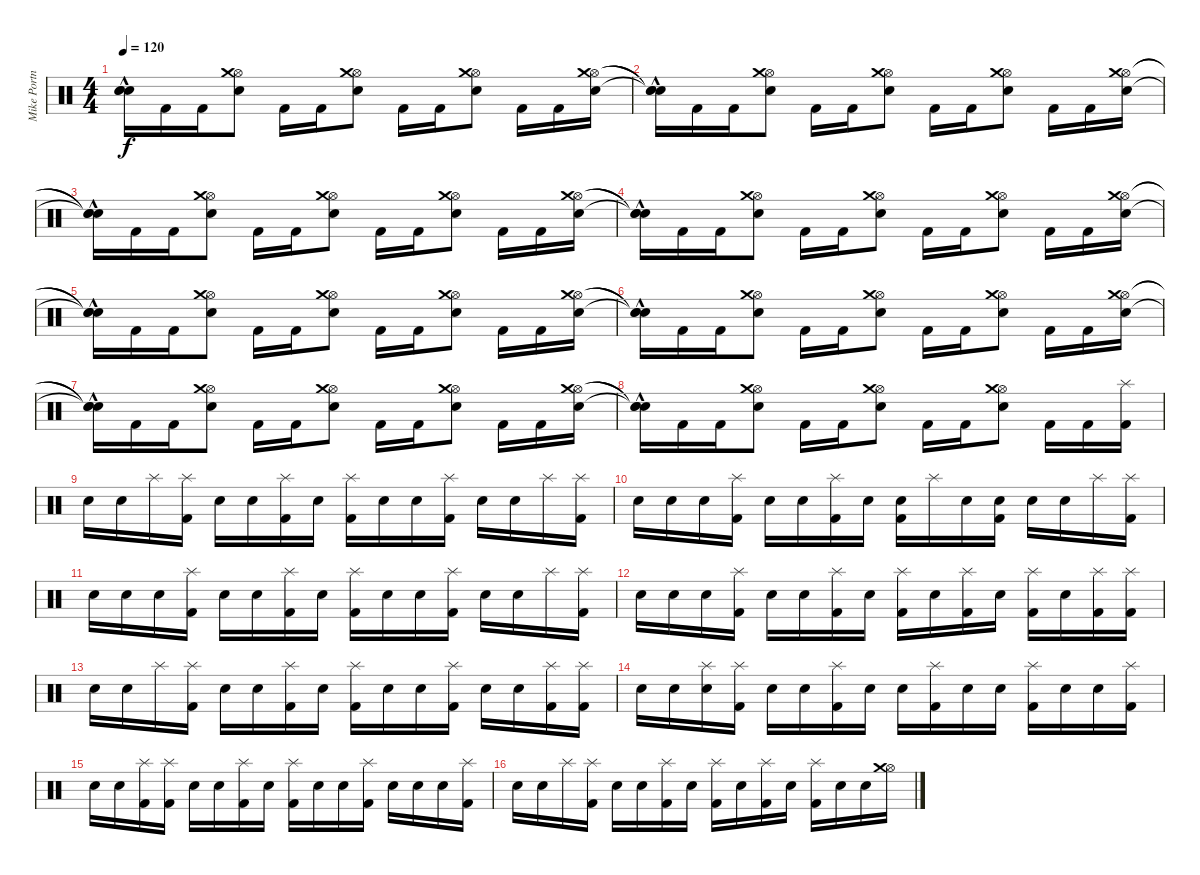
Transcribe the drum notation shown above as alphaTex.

\track ("Mike Portnoy - Batterie" "Mike Portn") {instrument percussion}
\staff {score}
\articulation defaults
\ts (4 4)
\tempo 120
\clef neutral
\ks c
("Snare (hit)"{hac t} "Snare (hit)"{hac t} "Snare (hit)"{t}).16{dy f} "Kick (hit) 2".16 "Kick (hit) 2".16 ("Hi-Hat (open)" "Crash medium (hit)" "Electric Snare (hit)").8 "Kick (hit) 2".16 "Kick (hit) 2".16 ("Hi-Hat (open)" "Crash medium (hit)" "Electric Snare (hit)").8 "Kick (hit) 2".16 "Kick (hit) 2".16 ("Hi-Hat (open)" "Crash medium (hit)" "Electric Snare (hit)").8 "Kick (hit) 2".16 "Kick (hit) 2".16 ("Hi-Hat (open)" "Crash medium (hit)" "Electric Snare (hit)").16 |
("Snare (hit)"{hac t} "Snare (hit)"{hac t} "Snare (hit)"{t}).16 "Kick (hit) 2".16 "Kick (hit) 2".16 ("Hi-Hat (open)" "Crash medium (hit)" "Electric Snare (hit)").8 "Kick (hit) 2".16 "Kick (hit) 2".16 ("Hi-Hat (open)" "Crash medium (hit)" "Electric Snare (hit)").8 "Kick (hit) 2".16 "Kick (hit) 2".16 ("Hi-Hat (open)" "Crash medium (hit)" "Electric Snare (hit)").8 "Kick (hit) 2".16 "Kick (hit) 2".16 ("Hi-Hat (open)" "Crash medium (hit)" "Electric Snare (hit)").16 |
("Snare (hit)"{hac t} "Snare (hit)"{hac t} "Snare (hit)"{t}).16 "Kick (hit) 2".16 "Kick (hit) 2".16 ("Hi-Hat (open)" "Crash medium (hit)" "Electric Snare (hit)").8 "Kick (hit) 2".16 "Kick (hit) 2".16 ("Hi-Hat (open)" "Crash medium (hit)" "Electric Snare (hit)").8 "Kick (hit) 2".16 "Kick (hit) 2".16 ("Hi-Hat (open)" "Crash medium (hit)" "Electric Snare (hit)").8 "Kick (hit) 2".16 "Kick (hit) 2".16 ("Hi-Hat (open)" "Crash medium (hit)" "Electric Snare (hit)").16 |
("Snare (hit)"{hac t} "Snare (hit)"{hac t} "Snare (hit)"{t}).16 "Kick (hit) 2".16 "Kick (hit) 2".16 ("Hi-Hat (open)" "Crash medium (hit)" "Electric Snare (hit)").8 "Kick (hit) 2".16 "Kick (hit) 2".16 ("Hi-Hat (open)" "Crash medium (hit)" "Electric Snare (hit)").8 "Kick (hit) 2".16 "Kick (hit) 2".16 ("Hi-Hat (open)" "Crash medium (hit)" "Electric Snare (hit)").8 "Kick (hit) 2".16 "Kick (hit) 2".16 ("Hi-Hat (open)" "Crash medium (hit)" "Electric Snare (hit)").16 |
("Snare (hit)"{hac t} "Snare (hit)"{hac t} "Snare (hit)"{t}).16 "Kick (hit) 2".16 "Kick (hit) 2".16 ("Hi-Hat (open)" "Crash medium (hit)" "Electric Snare (hit)").8 "Kick (hit) 2".16 "Kick (hit) 2".16 ("Hi-Hat (open)" "Crash medium (hit)" "Electric Snare (hit)").8 "Kick (hit) 2".16 "Kick (hit) 2".16 ("Hi-Hat (open)" "Crash medium (hit)" "Electric Snare (hit)").8 "Kick (hit) 2".16 "Kick (hit) 2".16 ("Hi-Hat (open)" "Crash medium (hit)" "Electric Snare (hit)").16 |
("Snare (hit)"{hac t} "Snare (hit)"{hac t} "Snare (hit)"{t}).16 "Kick (hit) 2".16 "Kick (hit) 2".16 ("Hi-Hat (open)" "Crash medium (hit)" "Electric Snare (hit)").8 "Kick (hit) 2".16 "Kick (hit) 2".16 ("Hi-Hat (open)" "Crash medium (hit)" "Electric Snare (hit)").8 "Kick (hit) 2".16 "Kick (hit) 2".16 ("Hi-Hat (open)" "Crash medium (hit)" "Electric Snare (hit)").8 "Kick (hit) 2".16 "Kick (hit) 2".16 ("Hi-Hat (open)" "Crash medium (hit)" "Electric Snare (hit)").16 |
("Snare (hit)"{hac t} "Snare (hit)"{hac t} "Snare (hit)"{t}).16 "Kick (hit) 2".16 "Kick (hit) 2".16 ("Hi-Hat (open)" "Crash medium (hit)" "Electric Snare (hit)").8 "Kick (hit) 2".16 "Kick (hit) 2".16 ("Hi-Hat (open)" "Crash medium (hit)" "Electric Snare (hit)").8 "Kick (hit) 2".16 "Kick (hit) 2".16 ("Hi-Hat (open)" "Crash medium (hit)" "Electric Snare (hit)").8 "Kick (hit) 2".16 "Kick (hit) 2".16 ("Hi-Hat (open)" "Crash medium (hit)" "Electric Snare (hit)").16 |
("Snare (hit)"{hac t} "Snare (hit)"{hac t} "Snare (hit)"{t}).16 "Kick (hit) 2".16 "Kick (hit) 2".16 ("Hi-Hat (open)" "Crash medium (hit)" "Electric Snare (hit)").8 "Kick (hit) 2".16 "Kick (hit) 2".16 ("Hi-Hat (open)" "Crash medium (hit)" "Electric Snare (hit)").8 "Kick (hit) 2".16 "Kick (hit) 2".16 ("Hi-Hat (open)" "Crash medium (hit)" "Electric Snare (hit)").8 "Kick (hit) 2".16 "Kick (hit) 2".16 ("Kick (hit) 2" "Splash (hit)").16 |
"Electric Snare (hit)".16 "Electric Snare (hit)".16 "Splash (hit)".16 ("Kick (hit) 2" "Splash (hit)").16 "Electric Snare (hit)".16 "Electric Snare (hit)".16 ("Kick (hit) 2" "Splash (hit)").16 "Electric Snare (hit)".16 ("Kick (hit) 2" "Splash (hit)").16 "Electric Snare (hit)".16 "Electric Snare (hit)".16 ("Kick (hit) 2" "Splash (hit)").16 "Electric Snare (hit)".16 "Electric Snare (hit)".16 "Splash (hit)".16 ("Kick (hit) 2" "Splash (hit)").16 |
"Electric Snare (hit)".16 "Electric Snare (hit)".16 "Electric Snare (hit)".16 ("Kick (hit) 2" "Splash (hit)").16 "Electric Snare (hit)".16 "Electric Snare (hit)".16 ("Kick (hit) 2" "Splash (hit)").16 "Electric Snare (hit)".16 ("Electric Snare (hit)" "Kick (hit) 2").16 "Splash (hit)".16 "Electric Snare (hit)".16 ("Electric Snare (hit)" "Kick (hit) 2").16 "Electric Snare (hit)".16 "Electric Snare (hit)".16 "Splash (hit)".16 ("Kick (hit) 2" "Splash (hit)").16 |
"Electric Snare (hit)".16 "Electric Snare (hit)".16 "Electric Snare (hit)".16 ("Kick (hit) 2" "Splash (hit)").16 "Electric Snare (hit)".16 "Electric Snare (hit)".16 ("Kick (hit) 2" "Splash (hit)").16 "Electric Snare (hit)".16 ("Kick (hit) 2" "Splash (hit)").16 "Electric Snare (hit)".16 "Electric Snare (hit)".16 ("Kick (hit) 2" "Splash (hit)").16 "Electric Snare (hit)".16 "Electric Snare (hit)".16 "Splash (hit)".16 ("Kick (hit) 2" "Splash (hit)").16 |
"Electric Snare (hit)".16 "Electric Snare (hit)".16 "Electric Snare (hit)".16 ("Kick (hit) 2" "Splash (hit)").16 "Electric Snare (hit)".16 "Electric Snare (hit)".16 ("Kick (hit) 2" "Splash (hit)").16 "Electric Snare (hit)".16 ("Kick (hit) 2" "Splash (hit)").16 "Electric Snare (hit)".16 ("Kick (hit) 2" "Splash (hit)").16 "Electric Snare (hit)".16 ("Kick (hit) 2" "Splash (hit)").16 "Electric Snare (hit)".16 ("Kick (hit) 2" "Splash (hit)").16 ("Kick (hit) 2" "Splash (hit)").16 |
"Electric Snare (hit)".16 "Electric Snare (hit)".16 "Splash (hit)".16 ("Kick (hit) 2" "Splash (hit)").16 "Electric Snare (hit)".16 "Electric Snare (hit)".16 ("Kick (hit) 2" "Splash (hit)").16 "Electric Snare (hit)".16 ("Kick (hit) 2" "Splash (hit)").16 "Electric Snare (hit)".16 "Electric Snare (hit)".16 ("Kick (hit) 2" "Splash (hit)").16 "Electric Snare (hit)".16 "Electric Snare (hit)".16 ("Kick (hit) 2" "Splash (hit)").16 ("Kick (hit) 2" "Splash (hit)").16 |
"Electric Snare (hit)".16 "Electric Snare (hit)".16 ("Splash (hit)" "Electric Snare (hit)").16 ("Kick (hit) 2" "Splash (hit)").16 "Electric Snare (hit)".16 "Electric Snare (hit)".16 ("Kick (hit) 2" "Splash (hit)").16 "Electric Snare (hit)".16 "Electric Snare (hit)".16 ("Kick (hit) 2" "Splash (hit)").16 "Electric Snare (hit)".16 "Electric Snare (hit)".16 ("Kick (hit) 2" "Splash (hit)").16 "Electric Snare (hit)".16 "Electric Snare (hit)".16 ("Kick (hit) 2" "Splash (hit)").16 |
"Electric Snare (hit)".16 "Electric Snare (hit)".16 ("Kick (hit) 2" "Splash (hit)").16 ("Kick (hit) 2" "Splash (hit)").16 "Electric Snare (hit)".16 "Electric Snare (hit)".16 ("Kick (hit) 2" "Splash (hit)").16 "Electric Snare (hit)".16 ("Kick (hit) 2" "Splash (hit)").16 "Electric Snare (hit)".16 "Electric Snare (hit)".16 ("Kick (hit) 2" "Splash (hit)").16 "Electric Snare (hit)".16 "Electric Snare (hit)".16 "Electric Snare (hit)".16 ("Kick (hit) 2" "Splash (hit)").16 |
"Electric Snare (hit)".16 "Electric Snare (hit)".16 "Splash (hit)".16 ("Kick (hit) 2" "Splash (hit)").16 "Electric Snare (hit)".16 "Electric Snare (hit)".16 ("Kick (hit) 2" "Splash (hit)").16 "Electric Snare (hit)".16 ("Kick (hit) 2" "Splash (hit)").16 "Electric Snare (hit)".16 ("Kick (hit) 2" "Splash (hit)").16 "Electric Snare (hit)".16 ("Kick (hit) 2" "Splash (hit)").16 "Electric Snare (hit)".16 "Electric Snare (hit)".16 ("Hi-Hat (open)" "Crash medium (hit)").16
